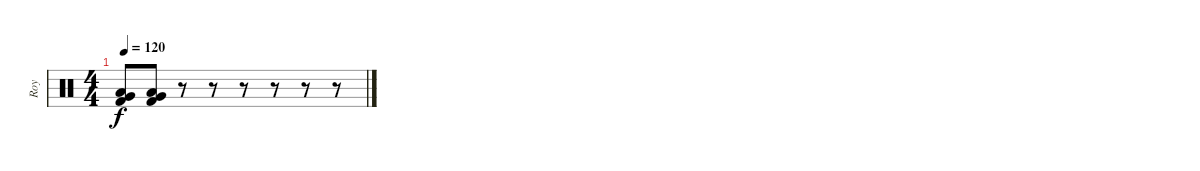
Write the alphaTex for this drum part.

\track ("Roy" "Roy") {instrument percussion}
\staff {score}
\articulation defaults
\ts (4 4)
\tempo 120
\clef neutral
\ks c
("Very Low Tom (hit)" "Low Floor Tom (hit)" "Kick (hit) 2").8{dy f} ("Very Low Tom (hit)" "Low Floor Tom (hit)" "Kick (hit) 2").8 r.8 r.8 r.8 r.8 r.8 r.8
